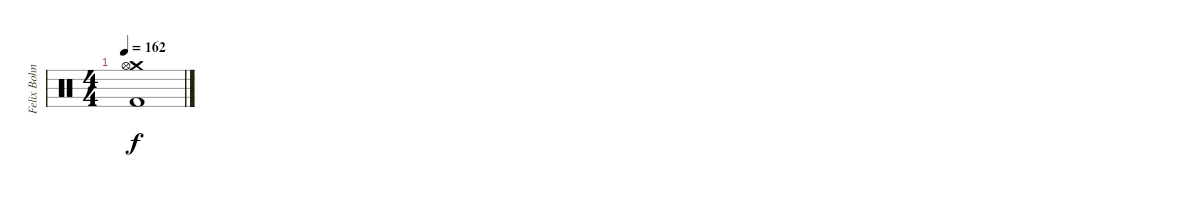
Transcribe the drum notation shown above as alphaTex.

\track ("Felix Bohnke" "Felix Bohn") {instrument percussion}
\staff {score}
\articulation defaults
\ts (4 4)
\tempo 162
\clef neutral
\ks c
("Crash medium (hit)" "Hi-Hat (open)" "Kick (hit) 2").1{dy f}
